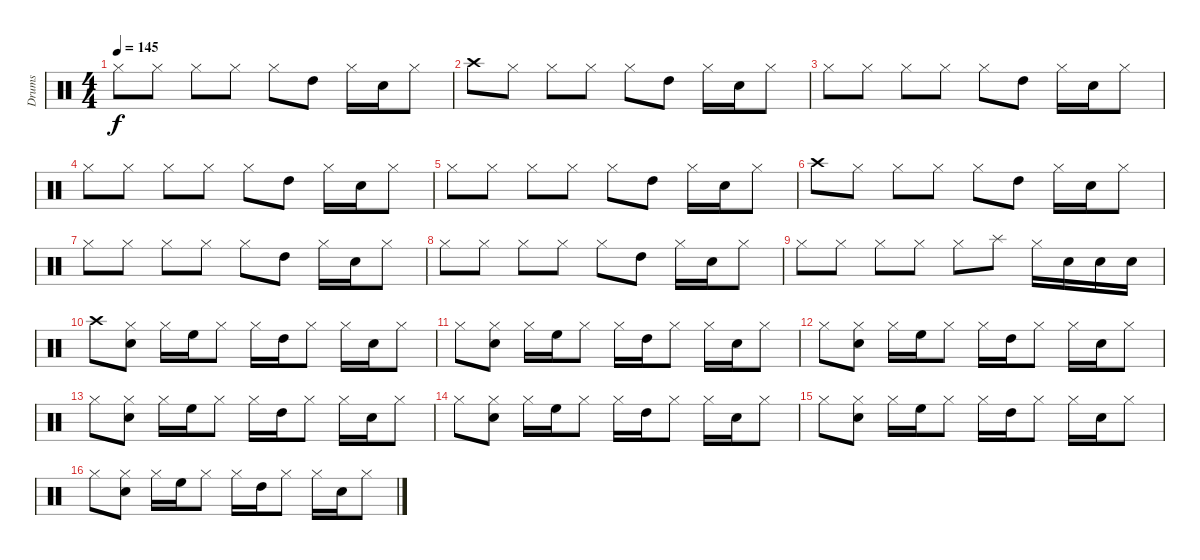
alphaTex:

\track ("Drums" "Drums") {instrument percussion}
\staff {score}
\articulation defaults
\ts (4 4)
\tempo 145
\clef neutral
\ks c "Hi-Hat (closed)".8{dy f} "Hi-Hat (closed)".8 "Hi-Hat (closed)".8 "Hi-Hat (closed)".8 "Hi-Hat (closed)".8 "High Tom (hit)".8 "Hi-Hat (closed)".16 "Snare (hit) 2".16 "Hi-Hat (closed)".8
|
"Crash high (hit)".8 "Hi-Hat (closed)".8 "Hi-Hat (closed)".8 "Hi-Hat (closed)".8 "Hi-Hat (closed)".8 "High Tom (hit)".8 "Hi-Hat (closed)".16 "Snare (hit) 2".16 "Hi-Hat (closed)".8 |
"Hi-Hat (closed)".8 "Hi-Hat (closed)".8 "Hi-Hat (closed)".8 "Hi-Hat (closed)".8 "Hi-Hat (closed)".8 "High Tom (hit)".8 "Hi-Hat (closed)".16 "Snare (hit) 2".16 "Hi-Hat (closed)".8 |
"Hi-Hat (closed)".8 "Hi-Hat (closed)".8 "Hi-Hat (closed)".8 "Hi-Hat (closed)".8 "Hi-Hat (closed)".8 "High Tom (hit)".8 "Hi-Hat (closed)".16 "Snare (hit) 2".16 "Hi-Hat (closed)".8 |
"Hi-Hat (closed)".8 "Hi-Hat (closed)".8 "Hi-Hat (closed)".8 "Hi-Hat (closed)".8 "Hi-Hat (closed)".8 "High Tom (hit)".8 "Hi-Hat (closed)".16 "Snare (hit) 2".16 "Hi-Hat (closed)".8 |
"Crash high (hit)".8 "Hi-Hat (closed)".8 "Hi-Hat (closed)".8 "Hi-Hat (closed)".8 "Hi-Hat (closed)".8 "High Tom (hit)".8 "Hi-Hat (closed)".16 "Snare (hit) 2".16 "Hi-Hat (closed)".8 |
"Hi-Hat (closed)".8 "Hi-Hat (closed)".8 "Hi-Hat (closed)".8 "Hi-Hat (closed)".8 "Hi-Hat (closed)".8 "High Tom (hit)".8 "Hi-Hat (closed)".16 "Snare (hit) 2".16 "Hi-Hat (closed)".8 |
"Hi-Hat (closed)".8 "Hi-Hat (closed)".8 "Hi-Hat (closed)".8 "Hi-Hat (closed)".8 "Hi-Hat (closed)".8 "High Tom (hit)".8 "Hi-Hat (closed)".16 "Snare (hit) 2".16 "Hi-Hat (closed)".8 |
"Hi-Hat (closed)".8 "Hi-Hat (closed)".8 "Hi-Hat (closed)".8 "Hi-Hat (closed)".8 "Hi-Hat (closed)".8 "Splash (hit)".8 "Hi-Hat (closed)".16 "Snare (hit) 2".16 "Snare (hit) 2".16 "Snare (hit) 2".16 |
"Crash high (hit)".8 ("Hi-Hat (closed)" "Snare (hit) 2").8 "Hi-Hat (closed)".16 "High Floor Tom (hit)".16 "Hi-Hat (closed)".8 "Hi-Hat (closed)".16 "High Tom (hit)".16 "Hi-Hat (closed)".8 "Hi-Hat (closed)".16 "Snare (hit) 2".16 "Hi-Hat (closed)".8 |
"Hi-Hat (closed)".8 ("Hi-Hat (closed)" "Snare (hit) 2").8 "Hi-Hat (closed)".16 "High Floor Tom (hit)".16 "Hi-Hat (closed)".8 "Hi-Hat (closed)".16 "High Tom (hit)".16 "Hi-Hat (closed)".8 "Hi-Hat (closed)".16 "Snare (hit) 2".16 "Hi-Hat (closed)".8 |
"Hi-Hat (closed)".8 ("Hi-Hat (closed)" "Snare (hit) 2").8 "Hi-Hat (closed)".16 "High Floor Tom (hit)".16 "Hi-Hat (closed)".8 "Hi-Hat (closed)".16 "High Tom (hit)".16 "Hi-Hat (closed)".8 "Hi-Hat (closed)".16 "Snare (hit) 2".16 "Hi-Hat (closed)".8 |
"Hi-Hat (closed)".8 ("Hi-Hat (closed)" "Snare (hit) 2").8 "Hi-Hat (closed)".16 "High Floor Tom (hit)".16 "Hi-Hat (closed)".8 "Hi-Hat (closed)".16 "High Tom (hit)".16 "Hi-Hat (closed)".8 "Hi-Hat (closed)".16 "Snare (hit) 2".16 "Hi-Hat (closed)".8 |
"Hi-Hat (closed)".8 ("Hi-Hat (closed)" "Snare (hit) 2").8 "Hi-Hat (closed)".16 "High Floor Tom (hit)".16 "Hi-Hat (closed)".8 "Hi-Hat (closed)".16 "High Tom (hit)".16 "Hi-Hat (closed)".8 "Hi-Hat (closed)".16 "Snare (hit) 2".16 "Hi-Hat (closed)".8 |
"Hi-Hat (closed)".8 ("Hi-Hat (closed)" "Snare (hit) 2").8 "Hi-Hat (closed)".16 "High Floor Tom (hit)".16 "Hi-Hat (closed)".8 "Hi-Hat (closed)".16 "High Tom (hit)".16 "Hi-Hat (closed)".8 "Hi-Hat (closed)".16 "Snare (hit) 2".16 "Hi-Hat (closed)".8 |
"Hi-Hat (closed)".8 ("Hi-Hat (closed)" "Snare (hit) 2").8 "Hi-Hat (closed)".16 "High Floor Tom (hit)".16 "Hi-Hat (closed)".8 "Hi-Hat (closed)".16 "High Tom (hit)".16 "Hi-Hat (closed)".8 "Hi-Hat (closed)".16 "Snare (hit) 2".16 "Hi-Hat (closed)".8
